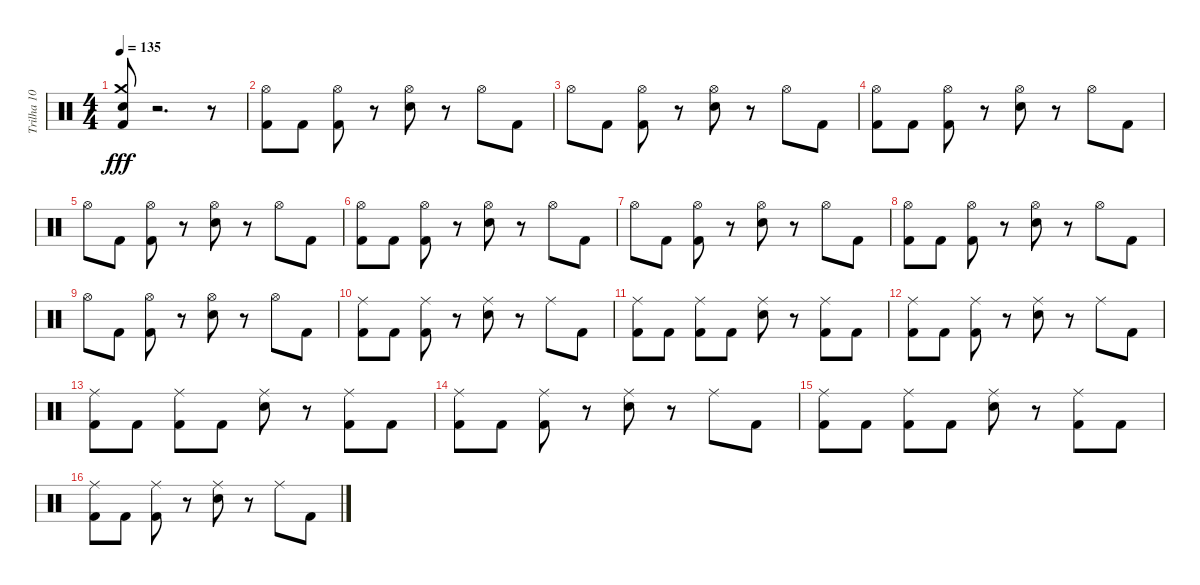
\track ("Trilha 10" "Trilha 10") {instrument percussion}
\staff {score}
\articulation defaults
\ts (4 4)
\tempo 135
\clef neutral
\ks c
("Kick (hit) 2" "Crash medium (hit)" "Electric Snare (hit)").8{dy fff} r.2{d} r.8 |
("Hi-Hat (open)" "Kick (hit) 2").8 "Kick (hit) 2".8 ("Hi-Hat (open)" "Kick (hit) 2").8 r.8 ("Hi-Hat (open)" "Electric Snare (hit)").8 r.8 "Hi-Hat (open)".8 "Kick (hit) 2".8 |
"Hi-Hat (open)".8 "Kick (hit) 2".8 ("Kick (hit) 2" "Hi-Hat (open)").8 r.8 ("Electric Snare (hit)" "Hi-Hat (open)").8 r.8 "Hi-Hat (open)".8 "Kick (hit) 2".8 |
("Hi-Hat (open)" "Kick (hit) 2").8 "Kick (hit) 2".8 ("Hi-Hat (open)" "Kick (hit) 2").8 r.8 ("Hi-Hat (open)" "Electric Snare (hit)").8 r.8 "Hi-Hat (open)".8 "Kick (hit) 2".8 |
"Hi-Hat (open)".8 "Kick (hit) 2".8 ("Hi-Hat (open)" "Kick (hit) 2").8 r.8 ("Hi-Hat (open)" "Electric Snare (hit)").8 r.8 "Hi-Hat (open)".8 "Kick (hit) 2".8 |
("Hi-Hat (open)" "Kick (hit) 2").8 "Kick (hit) 2".8 ("Hi-Hat (open)" "Kick (hit) 2").8 r.8 ("Hi-Hat (open)" "Electric Snare (hit)").8 r.8 "Hi-Hat (open)".8 "Kick (hit) 2".8 |
"Hi-Hat (open)".8 "Kick (hit) 2".8 ("Kick (hit) 2" "Hi-Hat (open)").8 r.8 ("Electric Snare (hit)" "Hi-Hat (open)").8 r.8 "Hi-Hat (open)".8 "Kick (hit) 2".8 |
("Hi-Hat (open)" "Kick (hit) 2").8 "Kick (hit) 2".8 ("Hi-Hat (open)" "Kick (hit) 2").8 r.8 ("Hi-Hat (open)" "Electric Snare (hit)").8 r.8 "Hi-Hat (open)".8 "Kick (hit) 2".8 |
"Hi-Hat (open)".8 "Kick (hit) 2".8 ("Hi-Hat (open)" "Kick (hit) 2").8 r.8 ("Hi-Hat (open)" "Electric Snare (hit)").8 r.8 "Hi-Hat (open)".8 "Kick (hit) 2".8 |
("Ride (middle)" "Kick (hit) 2").8 "Kick (hit) 2".8 ("Ride (middle)" "Kick (hit) 2").8 r.8 ("Ride (middle)" "Electric Snare (hit)").8 r.8 "Ride (middle)".8 "Kick (hit) 2".8 |
("Ride (middle)" "Kick (hit) 2").8 "Kick (hit) 2".8 ("Kick (hit) 2" "Ride (middle)").8 "Kick (hit) 2".8 ("Ride (middle)" "Electric Snare (hit)").8 r.8 ("Kick (hit) 2" "Ride (middle)").8 "Kick (hit) 2".8 |
("Ride (middle)" "Kick (hit) 2").8 "Kick (hit) 2".8 ("Ride (middle)" "Kick (hit) 2").8 r.8 ("Ride (middle)" "Electric Snare (hit)").8 r.8 "Ride (middle)".8 "Kick (hit) 2".8 |
("Ride (middle)" "Kick (hit) 2").8 "Kick (hit) 2".8 ("Kick (hit) 2" "Ride (middle)").8 "Kick (hit) 2".8 ("Ride (middle)" "Electric Snare (hit)").8 r.8 ("Kick (hit) 2" "Ride (middle)").8 "Kick (hit) 2".8 |
("Ride (middle)" "Kick (hit) 2").8 "Kick (hit) 2".8 ("Ride (middle)" "Kick (hit) 2").8 r.8 ("Ride (middle)" "Electric Snare (hit)").8 r.8 "Ride (middle)".8 "Kick (hit) 2".8 |
("Ride (middle)" "Kick (hit) 2").8 "Kick (hit) 2".8 ("Kick (hit) 2" "Ride (middle)").8 "Kick (hit) 2".8 ("Ride (middle)" "Electric Snare (hit)").8 r.8 ("Kick (hit) 2" "Ride (middle)").8 "Kick (hit) 2".8 |
("Ride (middle)" "Kick (hit) 2").8 "Kick (hit) 2".8 ("Ride (middle)" "Kick (hit) 2").8 r.8 ("Ride (middle)" "Electric Snare (hit)").8 r.8 "Ride (middle)".8 "Kick (hit) 2".8
